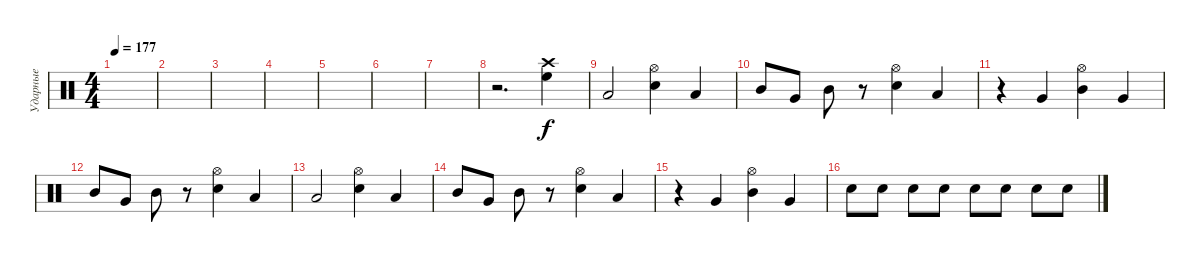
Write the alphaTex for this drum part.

\track ("Ударные" "Ударные") {instrument percussion}
\staff {score}
\articulation defaults
\ts (4 4)
\tempo 177
\clef neutral
\ks c
|
|
|
|
|
|
|
r.2{d} ("Crash high (hit)" "High Floor Tom (hit)").4{dy f} |
"Low Tom (hit)".2 ("Hi-Hat (open)" "Electric Snare (hit)").4 "Low Tom (hit)".4 |
"Mid Tom (hit)".8 "Very Low Tom (hit)".8 "Mid Tom (hit)".8 r.8 ("Hi-Hat (open)" "Electric Snare (hit)").4 "Low Tom (hit)".4 |
r.4 "Very Low Tom (hit)".4 ("Hi-Hat (open)" "Mid Tom (hit)").4 "Very Low Tom (hit)".4 |
"Mid Tom (hit)".8 "Very Low Tom (hit)".8 "Mid Tom (hit)".8 r.8 ("Hi-Hat (open)" "Electric Snare (hit)").4 "Low Tom (hit)".4 |
"Low Tom (hit)".2 ("Hi-Hat (open)" "Electric Snare (hit)").4 "Low Tom (hit)".4 |
"Mid Tom (hit)".8 "Very Low Tom (hit)".8 "Mid Tom (hit)".8 r.8 ("Hi-Hat (open)" "Electric Snare (hit)").4 "Low Tom (hit)".4 |
r.4 "Very Low Tom (hit)".4 ("Hi-Hat (open)" "Mid Tom (hit)").4 "Very Low Tom (hit)".4 |
"Electric Snare (hit)".8 "Electric Snare (hit)".8 "Electric Snare (hit)".8 "Electric Snare (hit)".8 "Electric Snare (hit)".8 "Electric Snare (hit)".8 "Electric Snare (hit)".8 "Electric Snare (hit)".8
